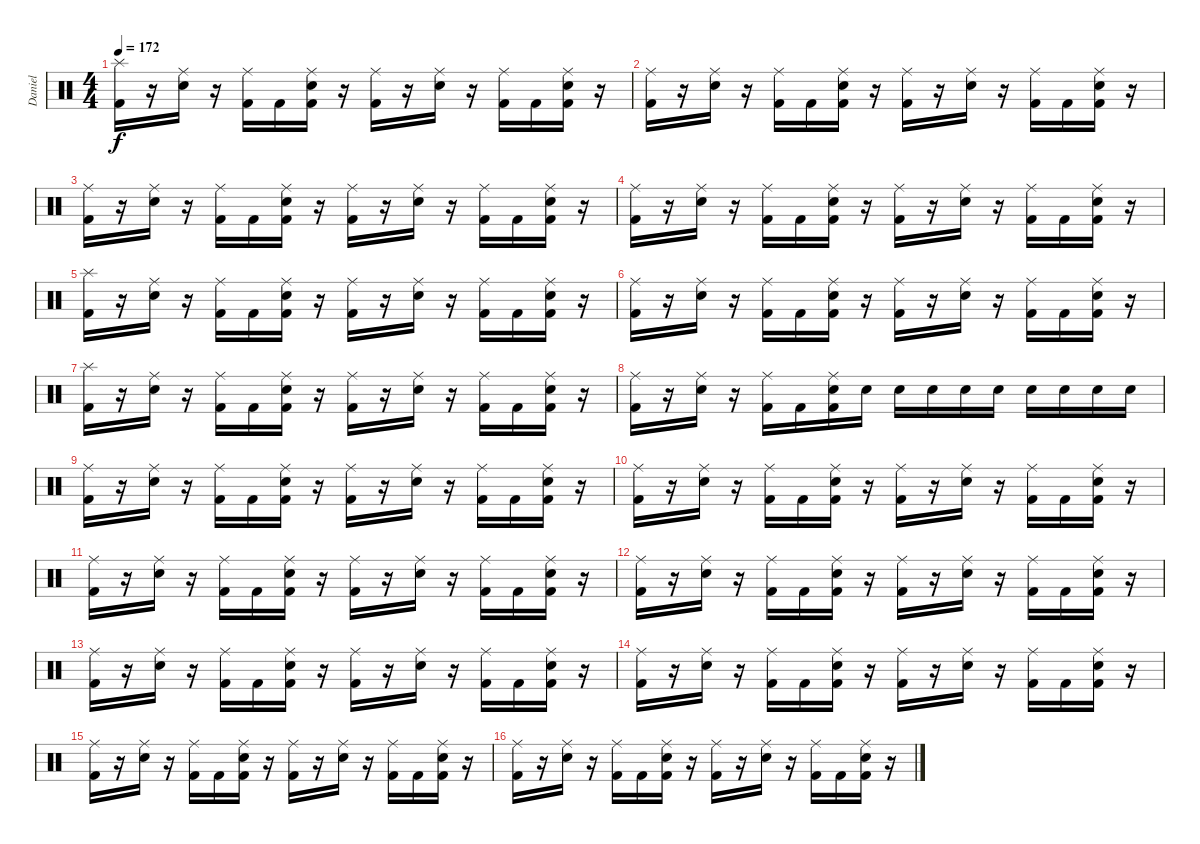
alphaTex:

\track ("Daniel" "Daniel") {instrument percussion}
\staff {score}
\articulation defaults
\ts (4 4)
\tempo 172
\clef neutral
\ks c
("Kick (hit) 2" "Splash (hit)").16{dy f} r.16 ("Snare (hit) 2" "Ride (middle)").16 r.16 ("Kick (hit) 2" "Ride (middle)").16 "Kick (hit) 2".16 ("Kick (hit) 2" "Snare (hit) 2" "Ride (middle)").16 r.16 ("Kick (hit) 2" "Ride (middle)").16 r.16 ("Snare (hit) 2" "Ride (middle)").16 r.16 ("Kick (hit) 2" "Ride (middle)").16 "Kick (hit) 2".16 ("Kick (hit) 2" "Snare (hit) 2" "Ride (middle)").16 r.16 |
("Kick (hit) 2" "Ride (middle)").16 r.16 ("Snare (hit) 2" "Ride (middle)").16 r.16 ("Kick (hit) 2" "Ride (middle)").16 "Kick (hit) 2".16 ("Kick (hit) 2" "Snare (hit) 2" "Ride (middle)").16 r.16 ("Kick (hit) 2" "Ride (middle)").16 r.16 ("Snare (hit) 2" "Ride (middle)").16 r.16 ("Kick (hit) 2" "Ride (middle)").16 "Kick (hit) 2".16 ("Kick (hit) 2" "Snare (hit) 2" "Ride (middle)").16 r.16 |
("Kick (hit) 2" "Ride (middle)").16 r.16 ("Snare (hit) 2" "Ride (middle)").16 r.16 ("Kick (hit) 2" "Ride (middle)").16 "Kick (hit) 2".16 ("Kick (hit) 2" "Snare (hit) 2" "Ride (middle)").16 r.16 ("Kick (hit) 2" "Ride (middle)").16 r.16 ("Snare (hit) 2" "Ride (middle)").16 r.16 ("Kick (hit) 2" "Ride (middle)").16 "Kick (hit) 2".16 ("Kick (hit) 2" "Snare (hit) 2" "Ride (middle)").16 r.16 |
("Kick (hit) 2" "Ride (middle)").16 r.16 ("Snare (hit) 2" "Ride (middle)").16 r.16 ("Kick (hit) 2" "Ride (middle)").16 "Kick (hit) 2".16 ("Kick (hit) 2" "Snare (hit) 2" "Ride (middle)").16 r.16 ("Kick (hit) 2" "Ride (middle)").16 r.16 ("Snare (hit) 2" "Ride (middle)").16 r.16 ("Kick (hit) 2" "Ride (middle)").16 "Kick (hit) 2".16 ("Kick (hit) 2" "Snare (hit) 2" "Ride (middle)").16 r.16 |
("Kick (hit) 2" "Splash (hit)").16 r.16 ("Snare (hit) 2" "Ride (middle)").16 r.16 ("Kick (hit) 2" "Ride (middle)").16 "Kick (hit) 2".16 ("Kick (hit) 2" "Snare (hit) 2" "Ride (middle)").16 r.16 ("Kick (hit) 2" "Ride (middle)").16 r.16 ("Snare (hit) 2" "Ride (middle)").16 r.16 ("Kick (hit) 2" "Ride (middle)").16 "Kick (hit) 2".16 ("Kick (hit) 2" "Snare (hit) 2" "Ride (middle)").16 r.16 |
("Kick (hit) 2" "Ride (middle)").16 r.16 ("Snare (hit) 2" "Ride (middle)").16 r.16 ("Kick (hit) 2" "Ride (middle)").16 "Kick (hit) 2".16 ("Kick (hit) 2" "Snare (hit) 2" "Ride (middle)").16 r.16 ("Kick (hit) 2" "Ride (middle)").16 r.16 ("Snare (hit) 2" "Ride (middle)").16 r.16 ("Kick (hit) 2" "Ride (middle)").16 "Kick (hit) 2".16 ("Kick (hit) 2" "Snare (hit) 2" "Ride (middle)").16 r.16 |
("Kick (hit) 2" "Splash (hit)").16 r.16 ("Snare (hit) 2" "Ride (middle)").16 r.16 ("Kick (hit) 2" "Ride (middle)").16 "Kick (hit) 2".16 ("Kick (hit) 2" "Snare (hit) 2" "Ride (middle)").16 r.16 ("Kick (hit) 2" "Ride (middle)").16 r.16 ("Snare (hit) 2" "Ride (middle)").16 r.16 ("Kick (hit) 2" "Ride (middle)").16 "Kick (hit) 2".16 ("Kick (hit) 2" "Snare (hit) 2" "Ride (middle)").16 r.16 |
("Kick (hit) 2" "Ride (middle)").16 r.16 ("Snare (hit) 2" "Ride (middle)").16 r.16 ("Kick (hit) 2" "Ride (middle)").16 "Kick (hit) 2".16 ("Kick (hit) 2" "Snare (hit) 2" "Ride (middle)").16 "Electric Snare (hit)".16 "Electric Snare (hit)".16 "Electric Snare (hit)".16 "Electric Snare (hit)".16 "Electric Snare (hit)".16 "Electric Snare (hit)".16 "Electric Snare (hit)".16 "Electric Snare (hit)".16 "Electric Snare (hit)".16 |
("Kick (hit) 2" "Ride (middle)").16 r.16 ("Snare (hit) 2" "Ride (middle)").16 r.16 ("Kick (hit) 2" "Ride (middle)").16 "Kick (hit) 2".16 ("Kick (hit) 2" "Snare (hit) 2" "Ride (middle)").16 r.16 ("Kick (hit) 2" "Ride (middle)").16 r.16 ("Snare (hit) 2" "Ride (middle)").16 r.16 ("Kick (hit) 2" "Ride (middle)").16 "Kick (hit) 2".16 ("Kick (hit) 2" "Snare (hit) 2" "Ride (middle)").16 r.16 |
("Kick (hit) 2" "Ride (middle)").16 r.16 ("Snare (hit) 2" "Ride (middle)").16 r.16 ("Kick (hit) 2" "Ride (middle)").16 "Kick (hit) 2".16 ("Kick (hit) 2" "Snare (hit) 2" "Ride (middle)").16 r.16 ("Kick (hit) 2" "Ride (middle)").16 r.16 ("Snare (hit) 2" "Ride (middle)").16 r.16 ("Kick (hit) 2" "Ride (middle)").16 "Kick (hit) 2".16 ("Kick (hit) 2" "Snare (hit) 2" "Ride (middle)").16 r.16 |
("Kick (hit) 2" "Ride (middle)").16 r.16 ("Snare (hit) 2" "Ride (middle)").16 r.16 ("Kick (hit) 2" "Ride (middle)").16 "Kick (hit) 2".16 ("Kick (hit) 2" "Snare (hit) 2" "Ride (middle)").16 r.16 ("Kick (hit) 2" "Ride (middle)").16 r.16 ("Snare (hit) 2" "Ride (middle)").16 r.16 ("Kick (hit) 2" "Ride (middle)").16 "Kick (hit) 2".16 ("Kick (hit) 2" "Snare (hit) 2" "Ride (middle)").16 r.16 |
("Kick (hit) 2" "Ride (middle)").16 r.16 ("Snare (hit) 2" "Ride (middle)").16 r.16 ("Kick (hit) 2" "Ride (middle)").16 "Kick (hit) 2".16 ("Kick (hit) 2" "Snare (hit) 2" "Ride (middle)").16 r.16 ("Kick (hit) 2" "Ride (middle)").16 r.16 ("Snare (hit) 2" "Ride (middle)").16 r.16 ("Kick (hit) 2" "Ride (middle)").16 "Kick (hit) 2".16 ("Kick (hit) 2" "Snare (hit) 2" "Ride (middle)").16 r.16 |
("Kick (hit) 2" "Ride (middle)").16 r.16 ("Snare (hit) 2" "Ride (middle)").16 r.16 ("Kick (hit) 2" "Ride (middle)").16 "Kick (hit) 2".16 ("Kick (hit) 2" "Snare (hit) 2" "Ride (middle)").16 r.16 ("Kick (hit) 2" "Ride (middle)").16 r.16 ("Snare (hit) 2" "Ride (middle)").16 r.16 ("Kick (hit) 2" "Ride (middle)").16 "Kick (hit) 2".16 ("Kick (hit) 2" "Snare (hit) 2" "Ride (middle)").16 r.16 |
("Kick (hit) 2" "Ride (middle)").16 r.16 ("Snare (hit) 2" "Ride (middle)").16 r.16 ("Kick (hit) 2" "Ride (middle)").16 "Kick (hit) 2".16 ("Kick (hit) 2" "Snare (hit) 2" "Ride (middle)").16 r.16 ("Kick (hit) 2" "Ride (middle)").16 r.16 ("Snare (hit) 2" "Ride (middle)").16 r.16 ("Kick (hit) 2" "Ride (middle)").16 "Kick (hit) 2".16 ("Kick (hit) 2" "Snare (hit) 2" "Ride (middle)").16 r.16 |
("Kick (hit) 2" "Ride (middle)").16 r.16 ("Snare (hit) 2" "Ride (middle)").16 r.16 ("Kick (hit) 2" "Ride (middle)").16 "Kick (hit) 2".16 ("Kick (hit) 2" "Snare (hit) 2" "Ride (middle)").16 r.16 ("Kick (hit) 2" "Ride (middle)").16 r.16 ("Snare (hit) 2" "Ride (middle)").16 r.16 ("Kick (hit) 2" "Ride (middle)").16 "Kick (hit) 2".16 ("Kick (hit) 2" "Snare (hit) 2" "Ride (middle)").16 r.16 |
("Kick (hit) 2" "Ride (middle)").16 r.16 ("Snare (hit) 2" "Ride (middle)").16 r.16 ("Kick (hit) 2" "Ride (middle)").16 "Kick (hit) 2".16 ("Kick (hit) 2" "Snare (hit) 2" "Ride (middle)").16 r.16 ("Kick (hit) 2" "Ride (middle)").16 r.16 ("Snare (hit) 2" "Ride (middle)").16 r.16 ("Kick (hit) 2" "Ride (middle)").16 "Kick (hit) 2".16 ("Kick (hit) 2" "Snare (hit) 2" "Ride (middle)").16 r.16
